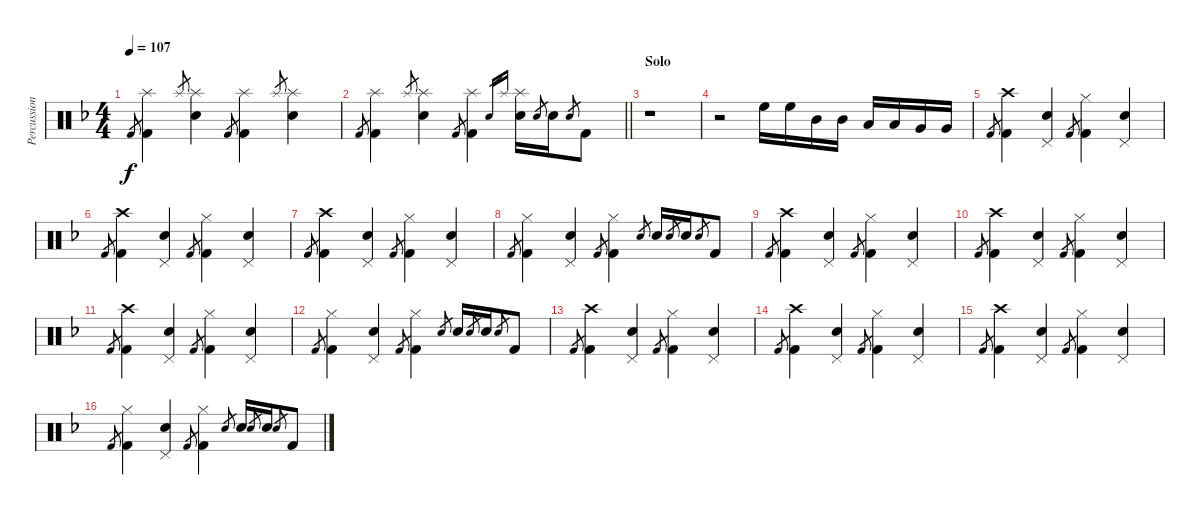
\track ("Percussion" "Percussion") {instrument percussion}
\staff {score}
\articulation defaults
\ts (4 4)
\tempo 107
\clef neutral
\ks f "Kick (hit) 2".8{gr dy f}
("Kick (hit) 2" "Splash (hit)").4 "Splash (hit)".8{gr} ("Snare (hit) 2" "Splash (hit)").4 "Kick (hit) 2".8{gr} ("Kick (hit) 2" "Splash (hit)").4 "Splash (hit)".8{gr} ("Snare (hit) 2" "Splash (hit)").4 |
\barLineRight lightlight "Kick (hit) 2".8{gr}
("Kick (hit) 2" "Splash (hit)").4 "Splash (hit)".8{gr} ("Snare (hit) 2" "Splash (hit)").4 "Kick (hit) 2".8{gr} ("Kick (hit) 2" "Splash (hit)").4 "Snare (hit) 2".16{gr} "Splash (hit)".16{gr} ("Snare (hit) 2" "Splash (hit)").16 "Snare (hit) 2".8{gr} "Snare (hit) 2".16 "Snare (hit) 2".8{gr} "Kick (hit) 2".8 |
\section ("" "Solo")
r.1 |
r.2 "High Floor Tom (hit)".16 "High Floor Tom (hit)".16 "Mid Tom (hit)".16 "Mid Tom (hit)".16 "Low Tom (hit)".16 "Low Tom (hit)".16 "Very Low Tom (hit)".16 "Very Low Tom (hit)".16 |
"Kick (hit) 2".8{gr} ("Kick (hit) 2" "Crash high (hit)").4 ("Snare (hit) 2" "Pedal Hi-Hat (hit)").4 "Kick (hit) 2".8{gr} ("Kick (hit) 2" "Hi-Hat (closed)").4 ("Snare (hit) 2" "Pedal Hi-Hat (hit)").4 |
"Kick (hit) 2".8{gr} ("Kick (hit) 2" "Crash high (hit)").4 ("Snare (hit) 2" "Pedal Hi-Hat (hit)").4 "Kick (hit) 2".8{gr} ("Kick (hit) 2" "Hi-Hat (closed)").4 ("Snare (hit) 2" "Pedal Hi-Hat (hit)").4 |
"Kick (hit) 2".8{gr} ("Kick (hit) 2" "Crash high (hit)").4 ("Snare (hit) 2" "Pedal Hi-Hat (hit)").4 "Kick (hit) 2".8{gr} ("Kick (hit) 2" "Hi-Hat (closed)").4 ("Snare (hit) 2" "Pedal Hi-Hat (hit)").4 |
"Kick (hit) 2".8{gr} ("Kick (hit) 2" "Hi-Hat (closed)").4 ("Snare (hit) 2" "Pedal Hi-Hat (hit)").4 "Kick (hit) 2".8{gr} ("Kick (hit) 2" "Hi-Hat (closed)").4 "Snare (hit) 2".8{gr} "Snare (hit) 2".16 "Snare (hit) 2".8{gr} "Snare (hit) 2".16 "Snare (hit) 2".8{gr} "Kick (hit) 2".8 |
"Kick (hit) 2".8{gr} ("Kick (hit) 2" "Crash high (hit)").4 ("Snare (hit) 2" "Pedal Hi-Hat (hit)").4 "Kick (hit) 2".8{gr} ("Kick (hit) 2" "Hi-Hat (closed)").4 ("Snare (hit) 2" "Pedal Hi-Hat (hit)").4 |
"Kick (hit) 2".8{gr} ("Kick (hit) 2" "Crash high (hit)").4 ("Snare (hit) 2" "Pedal Hi-Hat (hit)").4 "Kick (hit) 2".8{gr} ("Kick (hit) 2" "Hi-Hat (closed)").4 ("Snare (hit) 2" "Pedal Hi-Hat (hit)").4 |
"Kick (hit) 2".8{gr} ("Kick (hit) 2" "Crash high (hit)").4 ("Snare (hit) 2" "Pedal Hi-Hat (hit)").4 "Kick (hit) 2".8{gr} ("Kick (hit) 2" "Hi-Hat (closed)").4 ("Snare (hit) 2" "Pedal Hi-Hat (hit)").4 |
"Kick (hit) 2".8{gr} ("Kick (hit) 2" "Hi-Hat (closed)").4 ("Snare (hit) 2" "Pedal Hi-Hat (hit)").4 "Kick (hit) 2".8{gr} ("Kick (hit) 2" "Hi-Hat (closed)").4 "Snare (hit) 2".8{gr} "Snare (hit) 2".16 "Snare (hit) 2".8{gr} "Snare (hit) 2".16 "Snare (hit) 2".8{gr} "Kick (hit) 2".8 |
"Kick (hit) 2".8{gr} ("Kick (hit) 2" "Crash high (hit)").4 ("Snare (hit) 2" "Pedal Hi-Hat (hit)").4 "Kick (hit) 2".8{gr} ("Kick (hit) 2" "Hi-Hat (closed)").4 ("Snare (hit) 2" "Pedal Hi-Hat (hit)").4 |
"Kick (hit) 2".8{gr} ("Kick (hit) 2" "Crash high (hit)").4 ("Snare (hit) 2" "Pedal Hi-Hat (hit)").4 "Kick (hit) 2".8{gr} ("Kick (hit) 2" "Hi-Hat (closed)").4 ("Snare (hit) 2" "Pedal Hi-Hat (hit)").4 |
"Kick (hit) 2".8{gr} ("Kick (hit) 2" "Crash high (hit)").4 ("Snare (hit) 2" "Pedal Hi-Hat (hit)").4 "Kick (hit) 2".8{gr} ("Kick (hit) 2" "Hi-Hat (closed)").4 ("Snare (hit) 2" "Pedal Hi-Hat (hit)").4 |
"Kick (hit) 2".8{gr} ("Kick (hit) 2" "Hi-Hat (closed)").4 ("Snare (hit) 2" "Pedal Hi-Hat (hit)").4 "Kick (hit) 2".8{gr} ("Kick (hit) 2" "Hi-Hat (closed)").4 "Snare (hit) 2".8{gr} "Snare (hit) 2".16 "Snare (hit) 2".8{gr} "Snare (hit) 2".16 "Snare (hit) 2".8{gr} "Kick (hit) 2".8
